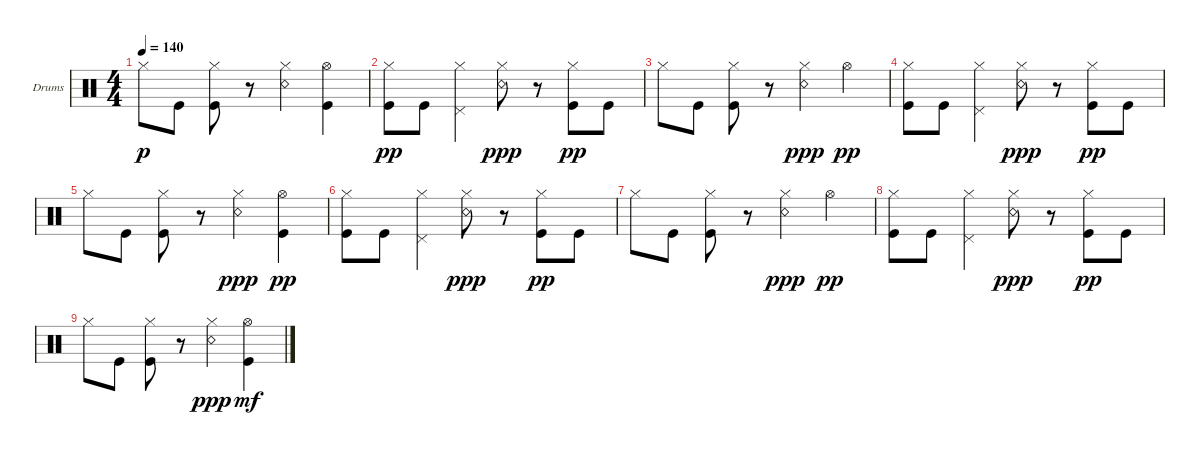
\defaultSystemsLayout 4
\bracketExtendMode groupsimilarinstruments
\firstSystemTrackNameOrientation horizontal
\otherSystemsTrackNameOrientation horizontal
\track ("Drumkit" "Drums") {instrument percussion}
\staff {score}
\articulation defaults
\ts (4 4)
\tempo 140
\clef neutral
\scale
0.333333
\ks c "Hi-Hat (closed)".8{dy p} "Kick (hit)".8
("Kick (hit)" "Hi-Hat (closed)").8 r.8 ("Snare (rim shot)" "Hi-Hat (closed)").4 ("Hi-Hat (open)" "Kick (hit)").4 |
\scale
0.333333 ("Kick (hit)" "Hi-Hat (closed)").8{dy pp} "Kick (hit)".8 ("Pedal Hi-Hat (hit)" "Hi-Hat (closed)").4 ("Snare (rim shot)" "Hi-Hat (closed)").8{dy ppp} r.8 ("Kick (hit)" "Hi-Hat (closed)").8{dy pp} "Kick (hit)".8 |
\scale
0.333333 "Hi-Hat (closed)".8 "Kick (hit)".8 ("Kick (hit)" "Hi-Hat (closed)").8 r.8 ("Snare (rim shot)" "Hi-Hat (closed)").4{dy ppp} "Hi-Hat (open)".4{dy pp} |
\scale
0.333333 ("Kick (hit)" "Hi-Hat (closed)").8 "Kick (hit)".8 ("Pedal Hi-Hat (hit)" "Hi-Hat (closed)").4 ("Snare (rim shot)" "Hi-Hat (closed)").8{dy ppp} r.8 ("Kick (hit)" "Hi-Hat (closed)").8{dy pp} "Kick (hit)".8 |
\scale
0.333333 "Hi-Hat (closed)".8 "Kick (hit)".8 ("Kick (hit)" "Hi-Hat (closed)").8 r.8 ("Snare (rim shot)" "Hi-Hat (closed)").4{dy ppp} ("Hi-Hat (open)" "Kick (hit)").4{dy pp} |
\scale
0.333333 ("Kick (hit)" "Hi-Hat (closed)").8 "Kick (hit)".8 ("Pedal Hi-Hat (hit)" "Hi-Hat (closed)").4 ("Snare (rim shot)" "Hi-Hat (closed)").8{dy ppp} r.8 ("Kick (hit)" "Hi-Hat (closed)").8{dy pp} "Kick (hit)".8 |
\scale
0.333333 "Hi-Hat (closed)".8 "Kick (hit)".8 ("Kick (hit)" "Hi-Hat (closed)").8 r.8 ("Snare (rim shot)" "Hi-Hat (closed)").4{dy ppp} "Hi-Hat (open)".4{dy pp} |
\scale
0.333333 ("Kick (hit)" "Hi-Hat (closed)").8 "Kick (hit)".8 ("Pedal Hi-Hat (hit)" "Hi-Hat (closed)").4 ("Snare (rim shot)" "Hi-Hat (closed)").8{dy ppp} r.8 ("Kick (hit)" "Hi-Hat (closed)").8{dy pp} "Kick (hit)".8 |
\scale
0.333333 "Hi-Hat (closed)".8 "Kick (hit)".8 ("Kick (hit)" "Hi-Hat (closed)").8 r.8 ("Snare (rim shot)" "Hi-Hat (closed)").4{dy ppp} ("Hi-Hat (open)" "Kick (hit)").4{dy mf} |
\scale
0.333333 |
\scale
0.333333 |
\scale
0.333333 |
\scale
0.333333 |
\scale
0.333333 |
\scale
0.333333 |
\scale
0.333333
